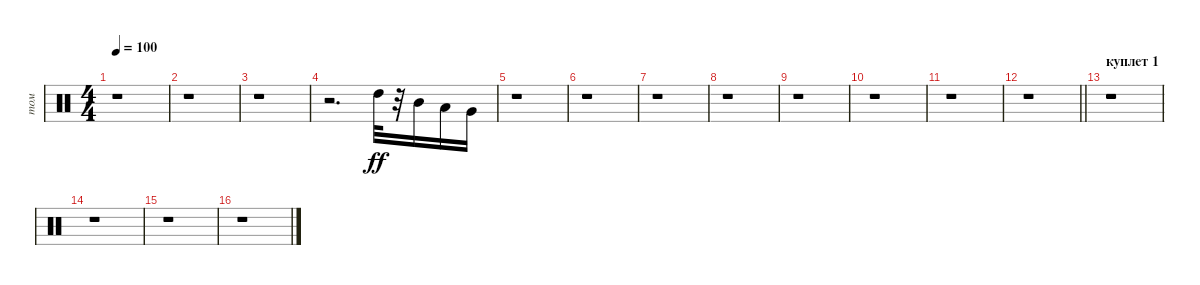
\track ("том" "том") {instrument percussion}
\staff {score}
\articulation defaults
\ts (4 4)
\tempo 100
\clef neutral
\ks c
r.1{dy ff} |
r.1 |
r.1 |
r.2{d} "High Tom (hit)".32 r.32 "Mid Tom (hit)".16 "Low Tom (hit)".16 "Very Low Tom (hit)".16 |
r.1 |
r.1 |
r.1 |
r.1 |
r.1 |
r.1 |
r.1 |
\barLineRight lightlight
r.1 |
\section ("" "куплет 1")
r.1 |
r.1 |
r.1 |
r.1
